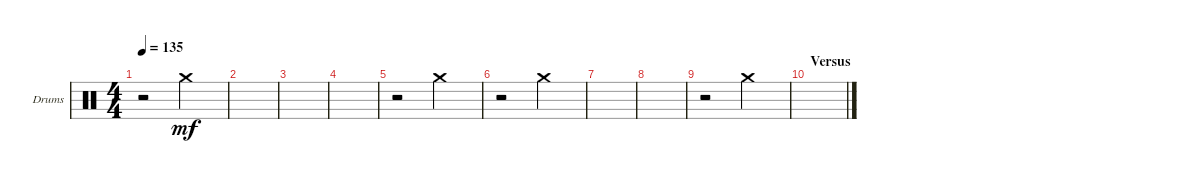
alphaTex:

\bracketExtendMode groupsimilarinstruments
\firstSystemTrackNameOrientation horizontal
\otherSystemsTrackNameOrientation horizontal
\track ("OH" "Drums") {instrument percussion}
\staff {score}
\articulation defaults
\ts (4 4)
\tempo 135
\clef neutral
\ks c
r.2{dy mf} "Crash medium (hit)".2 |
|
|
|
r.2 "Crash medium (hit)".2 |
r.2 "Crash medium (hit)".2 |
|
|
r.2 "Crash medium (hit)".2 |
\section ("" "Versus")
